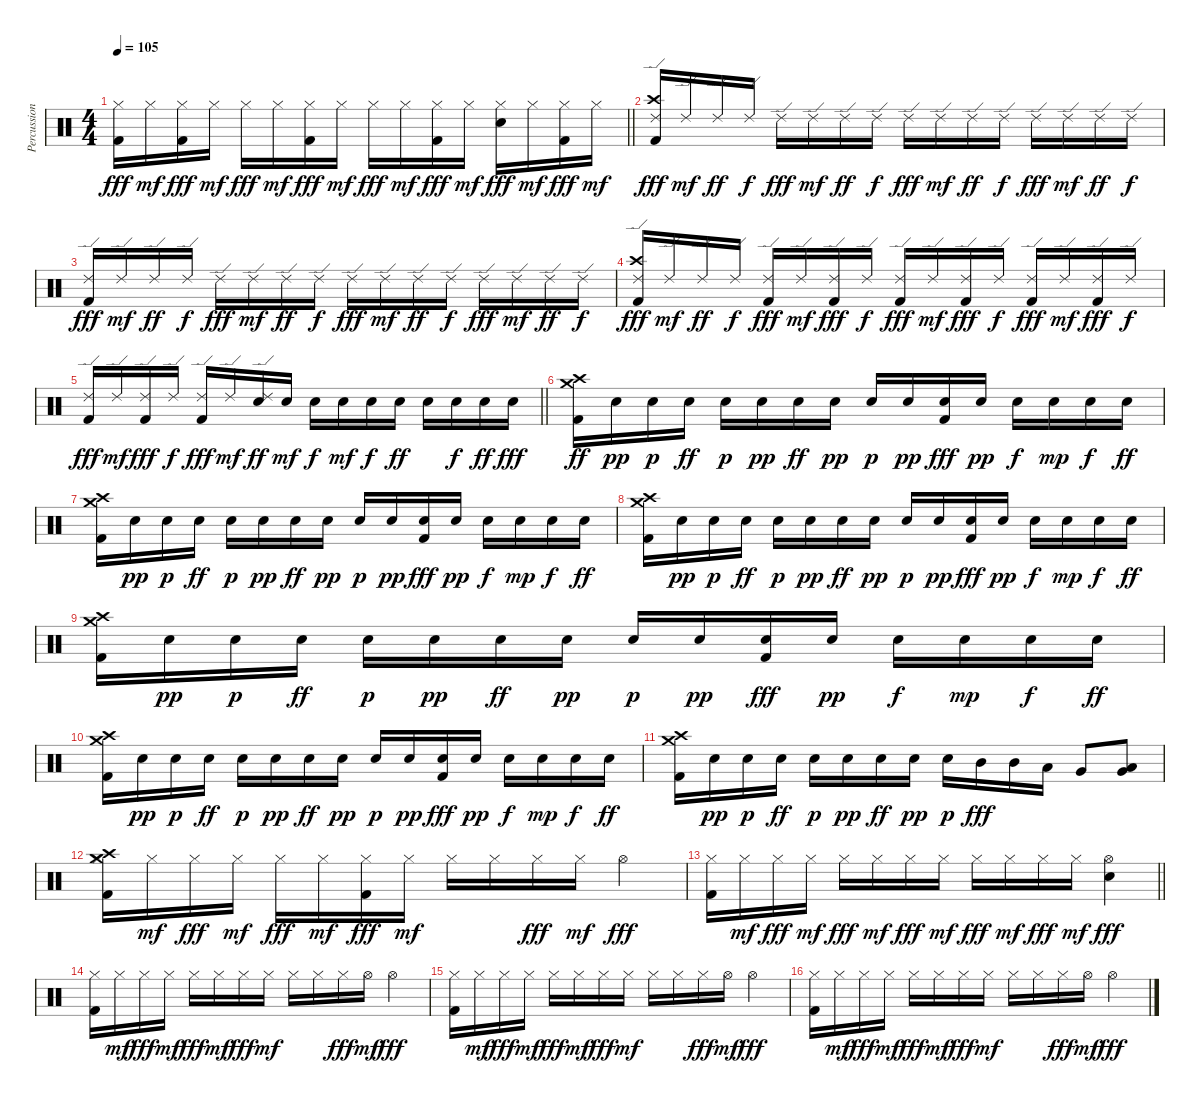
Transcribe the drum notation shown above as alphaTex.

\track ("Percussion" "Percussion") {instrument percussion}
\staff {score}
\articulation defaults
\ts (4 4)
\tempo 105
\clef neutral
\barLineRight lightlight
\ks c
("Hi-Hat (closed)" "Kick (hit) 2").16{dy fff} "Hi-Hat (closed)".16{dy mf} ("Hi-Hat (closed)" "Kick (hit) 2").16{dy fff} "Hi-Hat (closed)".16{dy mf} "Hi-Hat (closed)".16{dy fff} "Hi-Hat (closed)".16{dy mf} ("Hi-Hat (closed)" "Kick (hit) 2").16{dy fff} "Hi-Hat (closed)".16{dy mf} "Hi-Hat (closed)".16{dy fff} "Hi-Hat (closed)".16{dy mf} ("Hi-Hat (closed)" "Kick (hit) 2").16{dy fff} "Hi-Hat (closed)".16{dy mf} ("Hi-Hat (closed)" "Electric Snare (hit)").16{dy fff} "Hi-Hat (closed)".16{dy mf} ("Hi-Hat (closed)" "Kick (hit) 2").16{dy fff} "Hi-Hat (closed)".16{dy mf} |
("Crash high (hit)" "Ride (edge) 2" "Kick (hit) 2").16{dy fff} "Ride (edge) 2".16{dy mf} "Ride (edge) 2".16{dy ff} "Ride (edge) 2".16{dy f} "Ride (edge) 2".16{dy fff} "Ride (edge) 2".16{dy mf} "Ride (edge) 2".16{dy ff} "Ride (edge) 2".16{dy f} "Ride (edge) 2".16{dy fff} "Ride (edge) 2".16{dy mf} "Ride (edge) 2".16{dy ff} "Ride (edge) 2".16{dy f} "Ride (edge) 2".16{dy fff} "Ride (edge) 2".16{dy mf} "Ride (edge) 2".16{dy ff} "Ride (edge) 2".16{dy f} |
("Ride (edge) 2" "Kick (hit) 2").16{dy fff} "Ride (edge) 2".16{dy mf} "Ride (edge) 2".16{dy ff} "Ride (edge) 2".16{dy f} "Ride (edge) 2".16{dy fff} "Ride (edge) 2".16{dy mf} "Ride (edge) 2".16{dy ff} "Ride (edge) 2".16{dy f} "Ride (edge) 2".16{dy fff} "Ride (edge) 2".16{dy mf} "Ride (edge) 2".16{dy ff} "Ride (edge) 2".16{dy f} "Ride (edge) 2".16{dy fff} "Ride (edge) 2".16{dy mf} "Ride (edge) 2".16{dy ff} "Ride (edge) 2".16{dy f} |
("Crash high (hit)" "Ride (edge) 2" "Kick (hit) 2").16{dy fff} "Ride (edge) 2".16{dy mf} "Ride (edge) 2".16{dy ff} "Ride (edge) 2".16{dy f} ("Ride (edge) 2" "Kick (hit) 2").16{dy fff} "Ride (edge) 2".16{dy mf} ("Ride (edge) 2" "Kick (hit) 2").16{dy fff} "Ride (edge) 2".16{dy f} ("Ride (edge) 2" "Kick (hit) 2").16{dy fff} "Ride (edge) 2".16{dy mf} ("Ride (edge) 2" "Kick (hit) 2").16{dy fff} "Ride (edge) 2".16{dy f} ("Ride (edge) 2" "Kick (hit) 2").16{dy fff} "Ride (edge) 2".16{dy mf} ("Ride (edge) 2" "Kick (hit) 2").16{dy fff} "Ride (edge) 2".16{dy f} |
\barLineRight lightlight
("Ride (edge) 2" "Kick (hit) 2").16{dy fff} "Ride (edge) 2".16{dy mf} ("Ride (edge) 2" "Kick (hit) 2").16{dy fff} "Ride (edge) 2".16{dy f} ("Ride (edge) 2" "Kick (hit) 2").16{dy fff} "Ride (edge) 2".16{dy mf} ("Ride (edge) 2" "Electric Snare (hit)").16{dy ff} "Electric Snare (hit)".16{dy mf} "Electric Snare (hit)".16{dy f} "Electric Snare (hit)".16{dy mf} "Electric Snare (hit)".16{dy f} "Electric Snare (hit)".16{dy ff} "Electric Snare (hit)".16 "Electric Snare (hit)".16{dy f} "Electric Snare (hit)".16{dy ff} "Electric Snare (hit)".16{dy fff} |
("Crash high (hit)" "Crash medium (hit)" "Kick (hit) 2").16{dy ff} "Electric Snare (hit)".16{dy pp} "Electric Snare (hit)".16{dy p} "Electric Snare (hit)".16{dy ff} "Electric Snare (hit)".16{dy p} "Electric Snare (hit)".16{dy pp} "Electric Snare (hit)".16{dy ff} "Electric Snare (hit)".16{dy pp} "Electric Snare (hit)".16{dy p} "Electric Snare (hit)".16{dy pp} ("Electric Snare (hit)" "Kick (hit) 2").16{dy fff} "Electric Snare (hit)".16{dy pp} "Electric Snare (hit)".16{dy f} "Electric Snare (hit)".16{dy mp} "Electric Snare (hit)".16{dy f} "Electric Snare (hit)".16{dy ff} |
("Crash high (hit)" "Crash medium (hit)" "Kick (hit) 2").16 "Electric Snare (hit)".16{dy pp} "Electric Snare (hit)".16{dy p} "Electric Snare (hit)".16{dy ff} "Electric Snare (hit)".16{dy p} "Electric Snare (hit)".16{dy pp} "Electric Snare (hit)".16{dy ff} "Electric Snare (hit)".16{dy pp} "Electric Snare (hit)".16{dy p} "Electric Snare (hit)".16{dy pp} ("Electric Snare (hit)" "Kick (hit) 2").16{dy fff} "Electric Snare (hit)".16{dy pp} "Electric Snare (hit)".16{dy f} "Electric Snare (hit)".16{dy mp} "Electric Snare (hit)".16{dy f} "Electric Snare (hit)".16{dy ff} |
("Crash high (hit)" "Crash medium (hit)" "Kick (hit) 2").16 "Electric Snare (hit)".16{dy pp} "Electric Snare (hit)".16{dy p} "Electric Snare (hit)".16{dy ff} "Electric Snare (hit)".16{dy p} "Electric Snare (hit)".16{dy pp} "Electric Snare (hit)".16{dy ff} "Electric Snare (hit)".16{dy pp} "Electric Snare (hit)".16{dy p} "Electric Snare (hit)".16{dy pp} ("Electric Snare (hit)" "Kick (hit) 2").16{dy fff} "Electric Snare (hit)".16{dy pp} "Electric Snare (hit)".16{dy f} "Electric Snare (hit)".16{dy mp} "Electric Snare (hit)".16{dy f} "Electric Snare (hit)".16{dy ff} |
("Crash high (hit)" "Crash medium (hit)" "Kick (hit) 2").16 "Electric Snare (hit)".16{dy pp} "Electric Snare (hit)".16{dy p} "Electric Snare (hit)".16{dy ff} "Electric Snare (hit)".16{dy p} "Electric Snare (hit)".16{dy pp} "Electric Snare (hit)".16{dy ff} "Electric Snare (hit)".16{dy pp} "Electric Snare (hit)".16{dy p} "Electric Snare (hit)".16{dy pp} ("Electric Snare (hit)" "Kick (hit) 2").16{dy fff} "Electric Snare (hit)".16{dy pp} "Electric Snare (hit)".16{dy f} "Electric Snare (hit)".16{dy mp} "Electric Snare (hit)".16{dy f} "Electric Snare (hit)".16{dy ff} |
("Crash high (hit)" "Crash medium (hit)" "Kick (hit) 2").16 "Electric Snare (hit)".16{dy pp} "Electric Snare (hit)".16{dy p} "Electric Snare (hit)".16{dy ff} "Electric Snare (hit)".16{dy p} "Electric Snare (hit)".16{dy pp} "Electric Snare (hit)".16{dy ff} "Electric Snare (hit)".16{dy pp} "Electric Snare (hit)".16{dy p} "Electric Snare (hit)".16{dy pp} ("Electric Snare (hit)" "Kick (hit) 2").16{dy fff} "Electric Snare (hit)".16{dy pp} "Electric Snare (hit)".16{dy f} "Electric Snare (hit)".16{dy mp} "Electric Snare (hit)".16{dy f} "Electric Snare (hit)".16{dy ff} |
("Crash high (hit)" "Crash medium (hit)" "Kick (hit) 2").16 "Electric Snare (hit)".16{dy pp} "Electric Snare (hit)".16{dy p} "Electric Snare (hit)".16{dy ff} "Electric Snare (hit)".16{dy p} "Electric Snare (hit)".16{dy pp} "Electric Snare (hit)".16{dy ff} "Electric Snare (hit)".16{dy pp} "Electric Snare (hit)".16{dy p} "Mid Tom (hit)".16{dy fff} "Mid Tom (hit)".16 "Low Tom (hit)".16 "Very Low Tom (hit)".8 ("Low Floor Tom (hit)" "Very Low Tom (hit)").8 |
("Crash high (hit)" "Crash medium (hit)" "Hi-Hat (closed)" "Kick (hit) 2").16 "Hi-Hat (closed)".16{dy mf} "Hi-Hat (closed)".16{dy fff} "Hi-Hat (closed)".16{dy mf} "Hi-Hat (closed)".16{dy fff} "Hi-Hat (closed)".16{dy mf} ("Hi-Hat (closed)" "Kick (hit) 2").16{dy fff} "Hi-Hat (closed)".16{dy mf} "Hi-Hat (closed)".16 "Hi-Hat (closed)".16 "Hi-Hat (closed)".16{dy fff} "Hi-Hat (closed)".16{dy mf} "Hi-Hat (open)".4{dy fff} |
\barLineRight lightlight
("Hi-Hat (closed)" "Kick (hit) 2").16 "Hi-Hat (closed)".16{dy mf} "Hi-Hat (closed)".16{dy fff} "Hi-Hat (closed)".16{dy mf} "Hi-Hat (closed)".16{dy fff} "Hi-Hat (closed)".16{dy mf} "Hi-Hat (closed)".16{dy fff} "Hi-Hat (closed)".16{dy mf} "Hi-Hat (closed)".16{dy fff} "Hi-Hat (closed)".16{dy mf} "Hi-Hat (closed)".16{dy fff} "Hi-Hat (closed)".16{dy mf} ("Hi-Hat (open)" "Electric Snare (hit)").4{dy fff} |
("Hi-Hat (closed)" "Kick (hit) 2").16 "Hi-Hat (closed)".16{dy mf} "Hi-Hat (closed)".16{dy fff} "Hi-Hat (closed)".16{dy mf} "Hi-Hat (closed)".16{dy fff} "Hi-Hat (closed)".16{dy mf} "Hi-Hat (closed)".16{dy fff} "Hi-Hat (closed)".16{dy mf} "Hi-Hat (closed)".16 "Hi-Hat (closed)".16 "Hi-Hat (closed)".16{dy fff} "Hi-Hat (open)".16{dy mf} "Hi-Hat (open)".4{dy fff} |
("Hi-Hat (closed)" "Kick (hit) 2").16 "Hi-Hat (closed)".16{dy mf} "Hi-Hat (closed)".16{dy fff} "Hi-Hat (closed)".16{dy mf} "Hi-Hat (closed)".16{dy fff} "Hi-Hat (closed)".16{dy mf} "Hi-Hat (closed)".16{dy fff} "Hi-Hat (closed)".16{dy mf} "Hi-Hat (closed)".16 "Hi-Hat (closed)".16 "Hi-Hat (closed)".16{dy fff} "Hi-Hat (open)".16{dy mf} "Hi-Hat (open)".4{dy fff} |
("Hi-Hat (closed)" "Kick (hit) 2").16 "Hi-Hat (closed)".16{dy mf} "Hi-Hat (closed)".16{dy fff} "Hi-Hat (closed)".16{dy mf} "Hi-Hat (closed)".16{dy fff} "Hi-Hat (closed)".16{dy mf} "Hi-Hat (closed)".16{dy fff} "Hi-Hat (closed)".16{dy mf} "Hi-Hat (closed)".16 "Hi-Hat (closed)".16 "Hi-Hat (closed)".16{dy fff} "Hi-Hat (open)".16{dy mf} "Hi-Hat (open)".4{dy fff}
